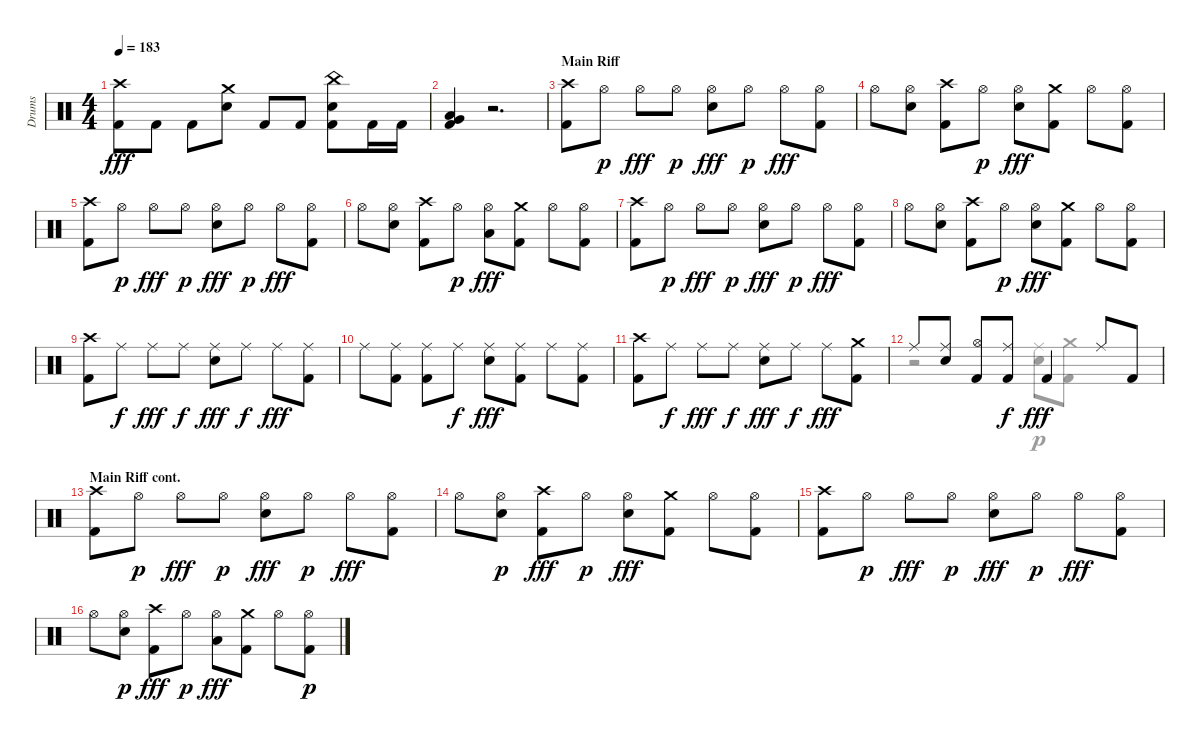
\track ("Drums" "Drums") {instrument percussion}
\staff {score}
\articulation defaults
\voice
\ts (4 4)
\tempo 183
\clef neutral
\ks aminor
("Kick (hit) 2" "Crash high (hit)").8{dy fff} "Kick (hit) 2".8 "Kick (hit) 2".8 ("Snare (hit) 2" "Crash medium (hit)").8 "Kick (hit) 2".8 "Kick (hit) 2".8 ("Kick (hit) 2" "Snare (hit) 2" "China (hit)").8 "Kick (hit) 2".16 "Kick (hit) 2".16 |
("Kick (hit) 2" "Low Floor Tom (hit)" "Very Low Tom (hit)").4 r.2{d} |
\section ("" "Main Riff")
("Kick (hit) 2" "Crash high (hit)").8 "Hi-Hat (open)".8{dy p} "Hi-Hat (open)".8{dy fff} "Hi-Hat (open)".8{dy p} ("Snare (hit) 2" "Hi-Hat (open)").8{dy fff} "Hi-Hat (open)".8{dy p} "Hi-Hat (open)".8{dy fff} ("Kick (hit) 2" "Hi-Hat (open)").8 |
"Hi-Hat (open)".8 ("Snare (hit) 2" "Hi-Hat (open)").8 ("Kick (hit) 2" "Crash high (hit)").8 "Hi-Hat (open)".8{dy p} ("Snare (hit) 2" "Hi-Hat (open)").8{dy fff} ("Kick (hit) 2" "Crash medium (hit)").8 "Hi-Hat (open)".8 ("Kick (hit) 2" "Hi-Hat (open)").8 |
("Kick (hit) 2" "Crash high (hit)").8 "Hi-Hat (open)".8{dy p} "Hi-Hat (open)".8{dy fff} "Hi-Hat (open)".8{dy p} ("Snare (hit) 2" "Hi-Hat (open)").8{dy fff} "Hi-Hat (open)".8{dy p} "Hi-Hat (open)".8{dy fff} ("Kick (hit) 2" "Hi-Hat (open)").8 |
"Hi-Hat (open)".8 ("Snare (hit) 2" "Hi-Hat (open)").8 ("Kick (hit) 2" "Crash high (hit)").8 "Hi-Hat (open)".8{dy p} ("Low Floor Tom (hit)" "Hi-Hat (open)").8{dy fff} ("Kick (hit) 2" "Crash medium (hit)").8 "Hi-Hat (open)".8 ("Kick (hit) 2" "Hi-Hat (open)").8 |
("Kick (hit) 2" "Crash high (hit)").8 "Hi-Hat (open)".8{dy p} "Hi-Hat (open)".8{dy fff} "Hi-Hat (open)".8{dy p} ("Snare (hit) 2" "Hi-Hat (open)").8{dy fff} "Hi-Hat (open)".8{dy p} "Hi-Hat (open)".8{dy fff} ("Kick (hit) 2" "Hi-Hat (open)").8 |
"Hi-Hat (open)".8 ("Snare (hit) 2" "Hi-Hat (open)").8 ("Kick (hit) 2" "Crash high (hit)").8 "Hi-Hat (open)".8{dy p} ("Snare (hit) 2" "Hi-Hat (open)").8{dy fff} ("Kick (hit) 2" "Crash medium (hit)").8 "Hi-Hat (open)".8 ("Kick (hit) 2" "Hi-Hat (open)").8 |
("Kick (hit) 2" "Crash high (hit)").8 "Ride (middle)".8{dy f} "Ride (middle)".8{dy fff} "Ride (middle)".8{dy f} ("Snare (hit) 2" "Ride (middle)").8{dy fff} "Ride (middle)".8{dy f} "Ride (middle)".8{dy fff} ("Kick (hit) 2" "Ride (middle)").8 |
"Ride (middle)".8 ("Kick (hit) 2" "Ride (middle)").8 ("Kick (hit) 2" "Ride (middle)").8 "Ride (middle)".8{dy f} ("Snare (hit) 2" "Ride (middle)").8{dy fff} ("Kick (hit) 2" "Ride (middle)").8 "Ride (middle)".8 ("Kick (hit) 2" "Ride (middle)").8 |
("Kick (hit) 2" "Crash high (hit)").8 "Ride (middle)".8{dy f} "Ride (middle)".8{dy fff} "Ride (middle)".8{dy f} ("Snare (hit) 2" "Ride (middle)").8{dy fff} "Ride (middle)".8{dy f} "Ride (middle)".8{dy fff} ("Kick (hit) 2" "Crash medium (hit)").8 |
"Ride (middle)".8 ("Snare (hit) 2" "Ride (middle)").8 ("Kick (hit) 2" "Hi-Hat (open)").8 ("Ride (middle)" "Kick (hit) 2").8{dy f} "Kick (hit) 2".4{dy fff} "Ride (middle)".8 "Kick (hit) 2".8 |
\section ("" "Main Riff cont.")
("Kick (hit) 2" "Crash high (hit)").8 "Hi-Hat (open)".8{dy p} "Hi-Hat (open)".8{dy fff} "Hi-Hat (open)".8{dy p} ("Snare (hit) 2" "Hi-Hat (open)").8{dy fff} "Hi-Hat (open)".8{dy p} "Hi-Hat (open)".8{dy fff} ("Kick (hit) 2" "Hi-Hat (open)").8 |
"Hi-Hat (open)".8 ("Snare (hit) 2" "Hi-Hat (open)").8{dy p} ("Kick (hit) 2" "Crash high (hit)").8{dy fff} "Hi-Hat (open)".8{dy p} ("Snare (hit) 2" "Hi-Hat (open)").8{dy fff} ("Kick (hit) 2" "Crash medium (hit)").8 "Hi-Hat (open)".8 ("Hi-Hat (open)" "Kick (hit) 2").8 |
("Kick (hit) 2" "Crash high (hit)").8 "Hi-Hat (open)".8{dy p} "Hi-Hat (open)".8{dy fff} "Hi-Hat (open)".8{dy p} ("Hi-Hat (open)" "Snare (hit) 2").8{dy fff} "Hi-Hat (open)".8{dy p} "Hi-Hat (open)".8{dy fff} ("Hi-Hat (open)" "Kick (hit) 2").8 |
"Hi-Hat (open)".8 ("Hi-Hat (open)" "Snare (hit) 2").8{dy p} ("Kick (hit) 2" "Crash high (hit)").8{dy fff} "Hi-Hat (open)".8{dy p} ("Hi-Hat (open)" "Low Floor Tom (hit)").8{dy fff} ("Crash medium (hit)" "Kick (hit) 2").8 "Hi-Hat (open)".8 ("Hi-Hat (open)" "Kick (hit) 2").8{dy p}
\voice
\clef neutral
\ottava regular
\simile none
\ks aminor
|
|
|
|
|
|
|
|
|
|
|
r.2 ("Snare (hit) 2" "Ride (middle)").8 ("Crash medium (hit)" "Kick (hit) 2").8 |
|
|
|
